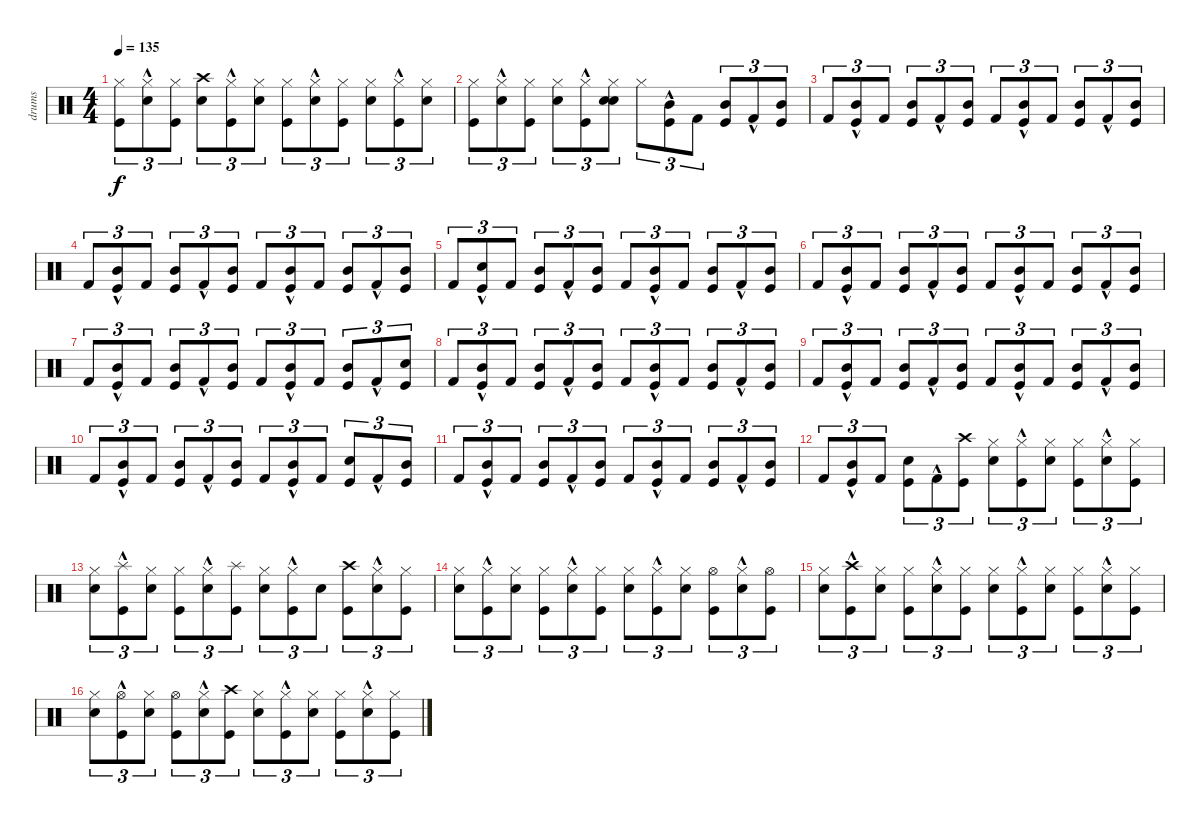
\track ("drums" "drums") {instrument percussion}
\staff {score}
\articulation defaults
\ts (4 4)
\tempo 135
\clef neutral
\ks c
("Kick (hit)" "Hi-Hat (closed)").8{tu (3 2) dy f} ("Snare (hit) 2"{hac} "Hi-Hat (closed)"{hac}).8{tu (3 2)} ("Hi-Hat (closed)" "Kick (hit)").8{tu (3 2)} ("Snare (hit) 2" "Crash high (hit)").8{tu (3 2)} ("Hi-Hat (closed)"{hac} "Kick (hit)"{hac}).8{tu (3 2)} ("Snare (hit) 2" "Hi-Hat (closed)").8{tu (3 2)} ("Kick (hit)" "Hi-Hat (closed)").8{tu (3 2)} ("Snare (hit) 2"{hac} "Hi-Hat (closed)"{hac}).8{tu (3 2)} ("Kick (hit)" "Hi-Hat (closed)").8{tu (3 2)} ("Snare (hit) 2" "Hi-Hat (closed)").8{tu (3 2)} ("Kick (hit)"{hac} "Hi-Hat (closed)"{hac}).8{tu (3 2)} ("Hi-Hat (closed)" "Snare (hit) 2").8{tu (3 2)} |
("Hi-Hat (closed)" "Kick (hit)").8{tu (3 2)} ("Snare (hit) 2"{hac} "Hi-Hat (closed)"{hac}).8{tu (3 2)} ("Kick (hit)" "Hi-Hat (closed)").8{tu (3 2)} ("Snare (hit) 2" "Hi-Hat (closed)").8{tu (3 2)} ("Kick (hit)"{hac} "Hi-Hat (closed)"{hac}).8{tu (3 2)} ("Snare (hit) 2" "Snare (hit) 2" "Hi-Hat (closed)").8{tu (3 2)} "Hi-Hat (closed)".8{tu (3 2)} ("Kick (hit)"{hac} "Mid Tom (hit)"{hac}).8{tu (3 2)} "Kick (hit) 2".8{tu (3 2)} ("Kick (hit)" "Mid Tom (hit)").8{tu (3 2)} "Kick (hit) 2"{hac}.8{tu (3 2)} ("Mid Tom (hit)" "Kick (hit)").8{tu (3 2)} |
"Kick (hit) 2".8{tu (3 2)} ("Mid Tom (hit)"{hac} "Kick (hit)"{hac}).8{tu (3 2)} "Kick (hit) 2".8{tu (3 2)} ("Mid Tom (hit)" "Kick (hit)").8{tu (3 2)} "Kick (hit) 2"{hac}.8{tu (3 2)} ("Mid Tom (hit)" "Kick (hit)").8{tu (3 2)} "Kick (hit) 2".8{tu (3 2)} ("Kick (hit)"{hac} "Mid Tom (hit)"{hac}).8{tu (3 2)} "Kick (hit) 2".8{tu (3 2)} ("Kick (hit)" "Mid Tom (hit)").8{tu (3 2)} "Kick (hit) 2"{hac}.8{tu (3 2)} ("Kick (hit)" "Mid Tom (hit)").8{tu (3 2)} |
"Kick (hit) 2".8{tu (3 2)} ("Mid Tom (hit)"{hac} "Kick (hit)"{hac}).8{tu (3 2)} "Kick (hit) 2".8{tu (3 2)} ("Mid Tom (hit)" "Kick (hit)").8{tu (3 2)} "Kick (hit) 2"{hac}.8{tu (3 2)} ("Mid Tom (hit)" "Kick (hit)").8{tu (3 2)} "Kick (hit) 2".8{tu (3 2)} ("Kick (hit)"{hac} "Mid Tom (hit)"{hac}).8{tu (3 2)} "Kick (hit) 2".8{tu (3 2)} ("Mid Tom (hit)" "Kick (hit)").8{tu (3 2)} "Kick (hit) 2"{hac}.8{tu (3 2)} ("Kick (hit)" "Mid Tom (hit)").8{tu (3 2)} |
"Kick (hit) 2".8{tu (3 2)} ("Kick (hit)"{hac} "Electric Snare (hit)"{hac}).8{tu (3 2)} "Kick (hit) 2".8{tu (3 2)} ("Kick (hit)" "Mid Tom (hit)").8{tu (3 2)} "Kick (hit) 2"{hac}.8{tu (3 2)} ("Kick (hit)" "Mid Tom (hit)").8{tu (3 2)} "Kick (hit) 2".8{tu (3 2)} ("Kick (hit)"{hac} "Mid Tom (hit)"{hac}).8{tu (3 2)} "Kick (hit) 2".8{tu (3 2)} ("Mid Tom (hit)" "Kick (hit)").8{tu (3 2)} "Kick (hit) 2"{hac}.8{tu (3 2)} ("Mid Tom (hit)" "Kick (hit)").8{tu (3 2)} |
"Kick (hit) 2".8{tu (3 2)} ("Mid Tom (hit)"{hac} "Kick (hit)"{hac}).8{tu (3 2)} "Kick (hit) 2".8{tu (3 2)} ("Mid Tom (hit)" "Kick (hit)").8{tu (3 2)} "Kick (hit) 2"{hac}.8{tu (3 2)} ("Kick (hit)" "Mid Tom (hit)").8{tu (3 2)} "Kick (hit) 2".8{tu (3 2)} ("Kick (hit)"{hac} "Mid Tom (hit)"{hac}).8{tu (3 2)} "Kick (hit) 2".8{tu (3 2)} ("Kick (hit)" "Mid Tom (hit)").8{tu (3 2)} "Kick (hit) 2"{hac}.8{tu (3 2)} ("Mid Tom (hit)" "Kick (hit)").8{tu (3 2)} |
"Kick (hit) 2".8{tu (3 2)} ("Mid Tom (hit)"{hac} "Kick (hit)"{hac}).8{tu (3 2)} "Kick (hit) 2".8{tu (3 2)} ("Mid Tom (hit)" "Kick (hit)").8{tu (3 2)} "Kick (hit) 2"{hac}.8{tu (3 2)} ("Kick (hit)" "Mid Tom (hit)").8{tu (3 2)} "Kick (hit) 2".8{tu (3 2)} ("Mid Tom (hit)"{hac} "Kick (hit)"{hac}).8{tu (3 2)} "Kick (hit) 2".8{tu (3 2)} ("Kick (hit)" "Mid Tom (hit)").8{tu (3 2)} "Kick (hit) 2"{hac}.8{tu (3 2)} ("Kick (hit)" "Electric Snare (hit)").8{tu (3 2)} |
"Kick (hit) 2".8{tu (3 2)} ("Kick (hit)"{hac} "Mid Tom (hit)"{hac}).8{tu (3 2)} "Kick (hit) 2".8{tu (3 2)} ("Kick (hit)" "Mid Tom (hit)").8{tu (3 2)} "Kick (hit) 2"{hac}.8{tu (3 2)} ("Kick (hit)" "Mid Tom (hit)").8{tu (3 2)} "Kick (hit) 2".8{tu (3 2)} ("Mid Tom (hit)"{hac} "Kick (hit)"{hac}).8{tu (3 2)} "Kick (hit) 2".8{tu (3 2)} ("Mid Tom (hit)" "Kick (hit)").8{tu (3 2)} "Kick (hit) 2"{hac}.8{tu (3 2)} ("Mid Tom (hit)" "Kick (hit)").8{tu (3 2)} |
"Kick (hit) 2".8{tu (3 2)} ("Mid Tom (hit)"{hac} "Kick (hit)"{hac}).8{tu (3 2)} "Kick (hit) 2".8{tu (3 2)} ("Kick (hit)" "Mid Tom (hit)").8{tu (3 2)} "Kick (hit) 2"{hac}.8{tu (3 2)} ("Kick (hit)" "Mid Tom (hit)").8{tu (3 2)} "Kick (hit) 2".8{tu (3 2)} ("Kick (hit)"{hac} "Mid Tom (hit)"{hac}).8{tu (3 2)} "Kick (hit) 2".8{tu (3 2)} ("Mid Tom (hit)" "Kick (hit)").8{tu (3 2)} "Kick (hit) 2"{hac}.8{tu (3 2)} ("Mid Tom (hit)" "Kick (hit)").8{tu (3 2)} |
"Kick (hit) 2".8{tu (3 2)} ("Mid Tom (hit)"{hac} "Kick (hit)"{hac}).8{tu (3 2)} "Kick (hit) 2".8{tu (3 2)} ("Kick (hit)" "Mid Tom (hit)").8{tu (3 2)} "Kick (hit) 2"{hac}.8{tu (3 2)} ("Mid Tom (hit)" "Kick (hit)").8{tu (3 2)} "Kick (hit) 2".8{tu (3 2)} ("Kick (hit)"{hac} "Mid Tom (hit)"{hac}).8{tu (3 2)} "Kick (hit) 2".8{tu (3 2)} ("Kick (hit)" "Electric Snare (hit)").8{tu (3 2)} "Kick (hit) 2"{hac}.8{tu (3 2)} ("Kick (hit)" "Mid Tom (hit)").8{tu (3 2)} |
"Kick (hit) 2".8{tu (3 2)} ("Kick (hit)"{hac} "Mid Tom (hit)"{hac}).8{tu (3 2)} "Kick (hit) 2".8{tu (3 2)} ("Kick (hit)" "Mid Tom (hit)").8{tu (3 2)} "Kick (hit) 2"{hac}.8{tu (3 2)} ("Mid Tom (hit)" "Kick (hit)").8{tu (3 2)} "Kick (hit) 2".8{tu (3 2)} ("Mid Tom (hit)"{hac} "Kick (hit)"{hac}).8{tu (3 2)} "Kick (hit) 2".8{tu (3 2)} ("Mid Tom (hit)" "Kick (hit)").8{tu (3 2)} "Kick (hit) 2"{hac}.8{tu (3 2)} ("Mid Tom (hit)" "Kick (hit)").8{tu (3 2)} |
"Kick (hit) 2".8{tu (3 2)} ("Kick (hit)"{hac} "Mid Tom (hit)"{hac}).8{tu (3 2)} "Kick (hit) 2".8{tu (3 2)} ("Kick (hit)" "Snare (hit) 2").8{tu (3 2)} "Kick (hit) 2"{hac}.8{tu (3 2)} ("Kick (hit)" "Crash high (hit)").8{tu (3 2)} ("Snare (hit) 2" "Hi-Hat (closed)").8{tu (3 2)} ("Hi-Hat (closed)" "Kick (hit)"{hac}).8{tu (3 2)} ("Hi-Hat (closed)" "Snare (hit) 2").8{tu (3 2)} ("Kick (hit)" "Hi-Hat (closed)").8{tu (3 2)} ("Hi-Hat (closed)" "Snare (hit) 2"{hac}).8{tu (3 2)} ("Hi-Hat (closed)" "Kick (hit)").8{tu (3 2)} |
("Hi-Hat (closed)" "Snare (hit) 2").8{tu (3 2)} ("Kick (hit)"{hac} "Splash (hit)").8{tu (3 2)} ("Snare (hit) 2" "Hi-Hat (closed)").8{tu (3 2)} ("Hi-Hat (closed)" "Kick (hit)").8{tu (3 2)} ("Hi-Hat (closed)" "Snare (hit) 2"{hac}).8{tu (3 2)} ("Kick (hit)" "Splash (hit)").8{tu (3 2)} ("Hi-Hat (closed)" "Snare (hit) 2").8{tu (3 2)} ("Kick (hit)"{hac} "Hi-Hat (closed)").8{tu (3 2)} "Snare (hit) 2".8{tu (3 2)} ("Kick (hit)" "Crash high (hit)").8{tu (3 2)} ("Hi-Hat (closed)" "Snare (hit) 2"{hac}).8{tu (3 2)} ("Hi-Hat (closed)" "Kick (hit)").8{tu (3 2)} |
("Snare (hit) 2" "Hi-Hat (closed)").8{tu (3 2)} ("Hi-Hat (closed)" "Kick (hit)"{hac}).8{tu (3 2)} ("Hi-Hat (closed)" "Snare (hit) 2").8{tu (3 2)} ("Kick (hit)" "Hi-Hat (closed)").8{tu (3 2)} ("Hi-Hat (closed)" "Snare (hit) 2"{hac}).8{tu (3 2)} ("Hi-Hat (closed)" "Kick (hit)").8{tu (3 2)} ("Snare (hit) 2" "Hi-Hat (closed)").8{tu (3 2)} ("Hi-Hat (closed)" "Kick (hit)"{hac}).8{tu (3 2)} ("Hi-Hat (closed)" "Snare (hit) 2").8{tu (3 2)} ("Hi-Hat (open)" "Kick (hit)").8{tu (3 2)} ("Hi-Hat (closed)" "Snare (hit) 2"{hac}).8{tu (3 2)} ("Hi-Hat (open)" "Kick (hit)").8{tu (3 2)} |
("Hi-Hat (closed)" "Snare (hit) 2").8{tu (3 2)} ("Kick (hit)"{hac} "Crash high (hit)"{hac}).8{tu (3 2)} ("Hi-Hat (closed)" "Snare (hit) 2").8{tu (3 2)} ("Hi-Hat (closed)" "Kick (hit)").8{tu (3 2)} ("Snare (hit) 2"{hac} "Hi-Hat (closed)").8{tu (3 2)} ("Hi-Hat (closed)" "Kick (hit)").8{tu (3 2)} ("Hi-Hat (closed)" "Snare (hit) 2").8{tu (3 2)} ("Kick (hit)"{hac} "Hi-Hat (closed)").8{tu (3 2)} ("Hi-Hat (closed)" "Snare (hit) 2").8{tu (3 2)} ("Hi-Hat (closed)" "Kick (hit)").8{tu (3 2)} ("Snare (hit) 2"{hac} "Hi-Hat (closed)").8{tu (3 2)} ("Hi-Hat (closed)" "Kick (hit)").8{tu (3 2)} |
("Hi-Hat (closed)" "Snare (hit) 2").8{tu (3 2)} ("Hi-Hat (open)" "Kick (hit)"{hac}).8{tu (3 2)} ("Hi-Hat (closed)" "Snare (hit) 2").8{tu (3 2)} ("Hi-Hat (open)" "Kick (hit)").8{tu (3 2)} ("Hi-Hat (closed)" "Snare (hit) 2"{hac}).8{tu (3 2)} ("Kick (hit)" "Crash high (hit)").8{tu (3 2)} ("Hi-Hat (closed)" "Snare (hit) 2").8{tu (3 2)} ("Hi-Hat (closed)" "Kick (hit)"{hac}).8{tu (3 2)} ("Snare (hit) 2" "Hi-Hat (closed)").8{tu (3 2)} ("Hi-Hat (closed)" "Kick (hit)").8{tu (3 2)} ("Hi-Hat (closed)" "Snare (hit) 2"{hac}).8{tu (3 2)} ("Kick (hit)" "Hi-Hat (closed)").8{tu (3 2)}
